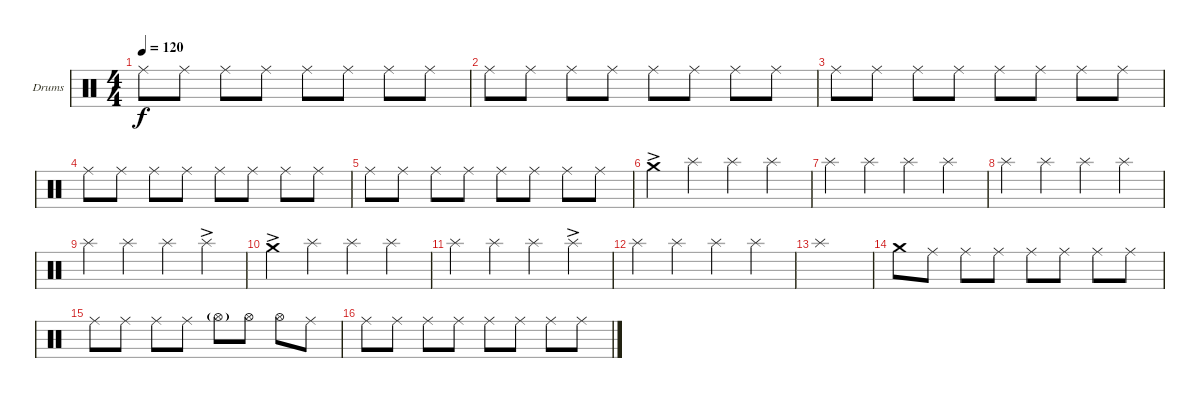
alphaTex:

\defaultSystemsLayout 4
\bracketExtendMode groupsimilarinstruments
\firstSystemTrackNameOrientation horizontal
\otherSystemsTrackNameOrientation horizontal
\track ("Drumkit" "Drums") {multiBarRest instrument percussion}
\staff {score}
\articulation defaults
\ts (4 4)
\tempo 120
\clef neutral
\ks c "Ride (middle)".8{dy f} "Ride (middle)".8 "Ride (middle)".8 "Ride (middle)".8 "Ride (middle)".8 "Ride (middle)".8 "Ride (middle)".8 "Ride (middle)".8
|
"Ride (middle)".8 "Ride (middle)".8 "Ride (middle)".8 "Ride (middle)".8 "Ride (middle)".8 "Ride (middle)".8 "Ride (middle)".8 "Ride (middle)".8 |
"Ride (middle)".8 "Ride (middle)".8 "Ride (middle)".8 "Ride (middle)".8 "Ride (middle)".8 "Ride (middle)".8 "Ride (middle)".8 "Ride (middle)".8 |
"Ride (middle)".8 "Ride (middle)".8 "Ride (middle)".8 "Ride (middle)".8 "Ride (middle)".8 "Ride (middle)".8 "Ride (middle)".8 "Ride (middle)".8 |
"Ride (middle)".8 "Ride (middle)".8 "Ride (middle)".8 "Ride (middle)".8 "Ride (middle)".8 "Ride (middle)".8 "Ride (middle)".8 "Ride (middle)".8 |
"Crash medium (hit)"{ac}.4 "Splash (hit)".4 "Splash (hit)".4 "Splash (hit)".4 |
"Splash (hit)".4 "Splash (hit)".4 "Splash (hit)".4 "Splash (hit)".4 |
"Splash (hit)".4 "Splash (hit)".4 "Splash (hit)".4 "Splash (hit)".4 |
"Splash (hit)".4 "Splash (hit)".4 "Splash (hit)".4 "Splash (hit)"{ac}.4 |
"Crash medium (hit)"{ac}.4 "Splash (hit)".4 "Splash (hit)".4 "Splash (hit)".4 |
"Splash (hit)".4 "Splash (hit)".4 "Splash (hit)".4 "Splash (hit)"{ac}.4 |
"Splash (hit)".4 "Splash (hit)".4 "Splash (hit)".4 "Splash (hit)".4 |
"Splash (hit)".1 |
"Crash medium (hit)".8 "Ride (middle)".8 "Ride (middle)".8 "Ride (middle)".8 "Ride (middle)".8 "Ride (middle)".8 "Ride (middle)".8 "Ride (middle)".8 |
"Ride (middle)".8 "Ride (middle)".8 "Ride (middle)".8 "Ride (middle)".8 "Hi-Hat (open)"{g}.8 "Hi-Hat (open)".8 "Hi-Hat (open)".8 "Ride (middle)".8 |
"Ride (middle)".8 "Ride (middle)".8 "Ride (middle)".8 "Ride (middle)".8 "Ride (middle)".8 "Ride (middle)".8 "Ride (middle)".8 "Ride (middle)".8
